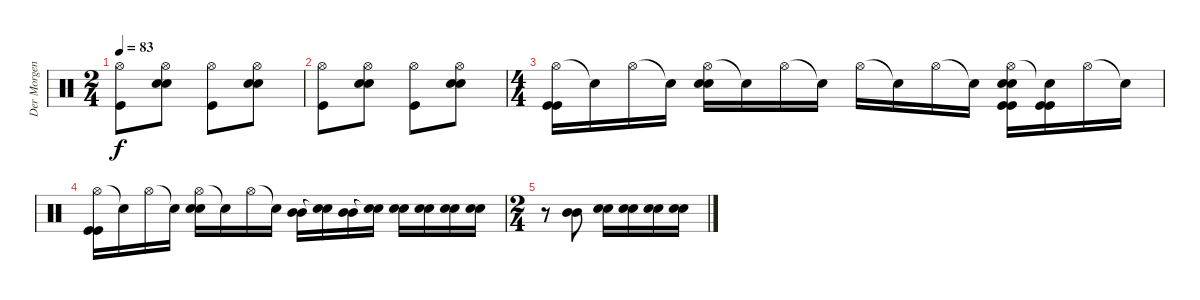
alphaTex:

\track ("Der Morgenstern" "Der Morgen") {instrument percussion}
\staff {score}
\articulation defaults
\ts (2 4)
\tempo 83
\clef neutral
\ks c
("Hi-Hat (open)" "Kick (hit)").8{dy f} ("Hi-Hat (open)" "Electric Snare (hit)" "Electric Snare (hit)").8 ("Hi-Hat (open)" "Kick (hit)").8 ("Hi-Hat (open)" "Electric Snare (hit)" "Electric Snare (hit)").8 |
("Hi-Hat (open)" "Kick (hit)").8 ("Hi-Hat (open)" "Electric Snare (hit)" "Electric Snare (hit)").8 ("Hi-Hat (open)" "Kick (hit)").8 ("Hi-Hat (open)" "Electric Snare (hit)" "Electric Snare (hit)").8 |
\ts (4 4)
("Hi-Hat (open)" "Kick (hit)" "Kick (hit)").16 "Snare (hit)"{t}.16 "Hi-Hat (open)".16 "Snare (hit)"{t}.16 ("Hi-Hat (open)" "Electric Snare (hit)" "Electric Snare (hit)").16 "Snare (hit)"{t}.16 "Hi-Hat (open)".16 "Snare (hit)"{t}.16 "Hi-Hat (open)".16 "Snare (hit)"{t}.16 "Hi-Hat (open)".16 "Snare (hit)"{t}.16 ("Hi-Hat (open)" "Electric Snare (hit)" "Electric Snare (hit)" "Kick (hit)" "Kick (hit)").16 ("Snare (hit)"{t} "Kick (hit)" "Kick (hit)").16 "Hi-Hat (open)".16 "Snare (hit)"{t}.16 |
("Hi-Hat (open)" "Kick (hit)" "Kick (hit)").16 "Snare (hit)"{t}.16 "Hi-Hat (open)".16 "Snare (hit)"{t}.16 ("Hi-Hat (open)" "Electric Snare (hit)" "Electric Snare (hit)").16 "Snare (hit)"{t}.16 "Hi-Hat (open)".16 "Snare (hit)"{t}.16 ("Mid Tom (hit)" "Mid Tom (hit)").16 ("Snare (hit)"{t} "Snare (hit)"{t}).16 ("Mid Tom (hit)" "Mid Tom (hit)").16 ("Snare (hit)"{t} "Snare (hit)"{t}).16 ("Electric Snare (hit)" "Electric Snare (hit)").16 ("Electric Snare (hit)" "Electric Snare (hit)").16 ("Electric Snare (hit)" "Electric Snare (hit)").16 ("Electric Snare (hit)" "Electric Snare (hit)").16 |
\ts (2 4)
r.8 ("Mid Tom (hit)" "Mid Tom (hit)").8 ("Electric Snare (hit)" "Electric Snare (hit)").16 ("Electric Snare (hit)" "Electric Snare (hit)").16 ("Electric Snare (hit)" "Electric Snare (hit)").16 ("Electric Snare (hit)" "Electric Snare (hit)").16
